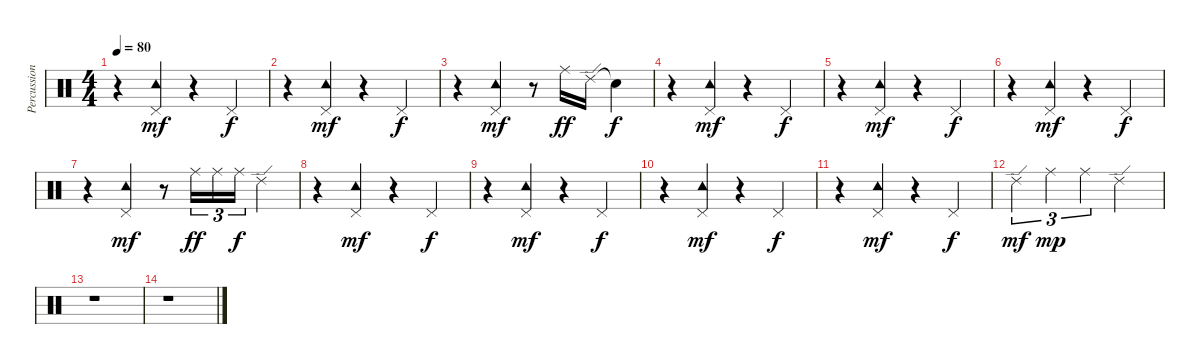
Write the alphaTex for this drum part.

\track ("Percussion" "Percussion") {instrument percussion}
\staff {score}
\articulation defaults
\ts (4 4)
\tempo 80
\clef neutral
\ks c
r.4{dy f} ("Tambourine (hit)" "Pedal Hi-Hat (hit)").4{dy mf} r.4 "Pedal Hi-Hat (hit)".4{dy f} |
r.4 ("Tambourine (hit)" "Pedal Hi-Hat (hit)").4{dy mf} r.4 "Pedal Hi-Hat (hit)".4{dy f} |
r.4 ("Tambourine (hit)" "Pedal Hi-Hat (hit)").4{dy mf} r.8 "Ride (middle)".16{dy ff} "Ride (edge) 2".16 "Snare (hit)"{t}.4{dy f} |
r.4 ("Tambourine (hit)" "Pedal Hi-Hat (hit)").4{dy mf} r.4 "Pedal Hi-Hat (hit)".4{dy f} |
r.4 ("Tambourine (hit)" "Pedal Hi-Hat (hit)").4{dy mf} r.4 "Pedal Hi-Hat (hit)".4{dy f} |
r.4 ("Tambourine (hit)" "Pedal Hi-Hat (hit)").4{dy mf} r.4 "Pedal Hi-Hat (hit)".4{dy f} |
r.4 ("Tambourine (hit)" "Pedal Hi-Hat (hit)").4{dy mf} r.8 "Ride (middle)".16{tu (3 2) dy ff} "Ride (middle)".16{tu (3 2)} "Ride (middle)".16{tu (3 2) dy f} "Ride (edge) 2".4 |
r.4 ("Tambourine (hit)" "Pedal Hi-Hat (hit)").4{dy mf} r.4 "Pedal Hi-Hat (hit)".4{dy f} |
r.4 ("Tambourine (hit)" "Pedal Hi-Hat (hit)").4{dy mf} r.4 "Pedal Hi-Hat (hit)".4{dy f} |
r.4 ("Tambourine (hit)" "Pedal Hi-Hat (hit)").4{dy mf} r.4 "Pedal Hi-Hat (hit)".4{dy f} |
r.4 ("Tambourine (hit)" "Pedal Hi-Hat (hit)").4{dy mf} r.4 "Pedal Hi-Hat (hit)".4{dy f} |
"Ride (edge) 2".4{tu (3 2) dy mf} "Ride (middle)".4{tu (3 2) dy mp} "Ride (middle)".4{tu (3 2)} "Ride (edge) 2".2 |
r.1 |
r.1
